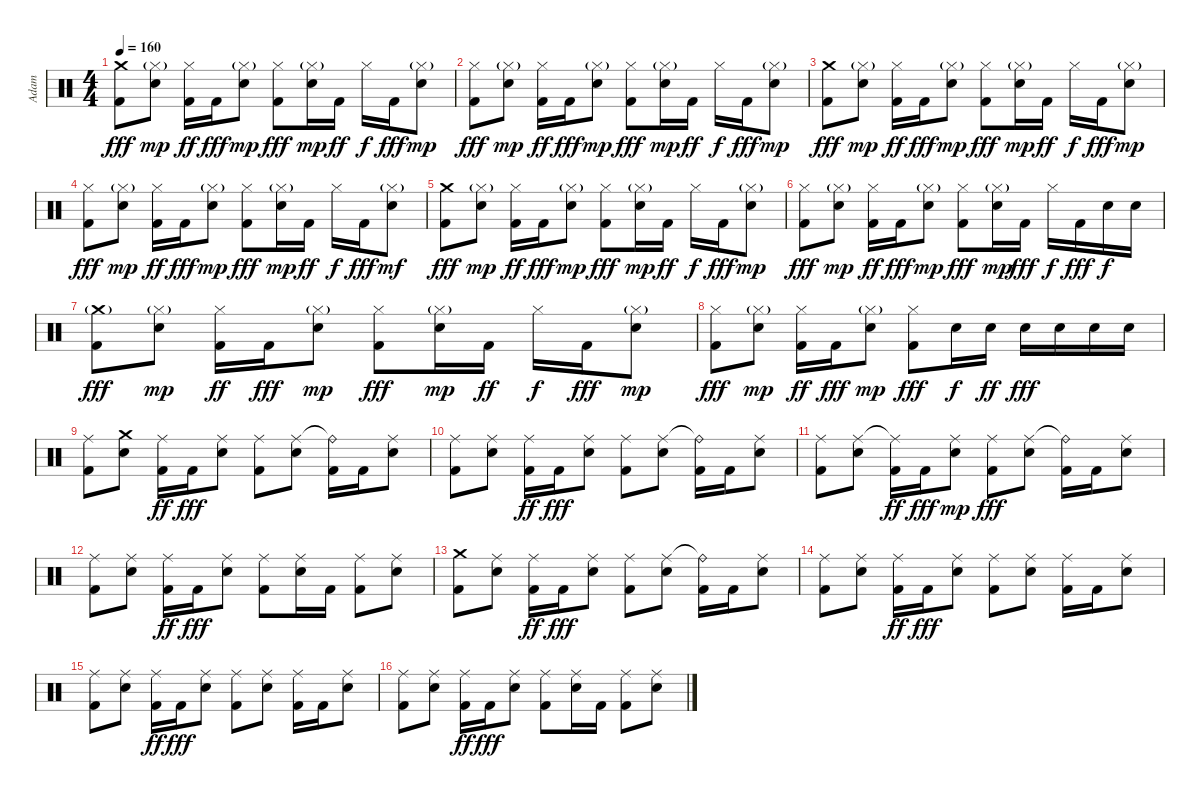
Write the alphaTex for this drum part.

\track ("Adam" "Adam") {instrument percussion}
\staff {score}
\articulation defaults
\ts (4 4)
\tempo 160
\clef neutral
\ks c
("Crash medium (hit)" "Kick (hit) 2").8{dy fff} ("Hi-Hat (closed)"{g} "Electric Snare (hit)").8{dy mp} ("Hi-Hat (closed)" "Kick (hit) 2").16{dy ff} "Kick (hit) 2".16{dy fff} ("Hi-Hat (closed)"{g} "Electric Snare (hit)").8{dy mp} ("Hi-Hat (closed)" "Kick (hit) 2").8{dy fff} ("Hi-Hat (closed)"{g} "Electric Snare (hit)").16{dy mp} "Kick (hit) 2".16{dy ff} "Hi-Hat (closed)".16{dy f} "Kick (hit) 2".16{dy fff} ("Hi-Hat (closed)"{g} "Electric Snare (hit)").8{dy mp} |
("Hi-Hat (closed)" "Kick (hit) 2").8{dy fff} ("Hi-Hat (closed)"{g} "Electric Snare (hit)").8{dy mp} ("Hi-Hat (closed)" "Kick (hit) 2").16{dy ff} "Kick (hit) 2".16{dy fff} ("Hi-Hat (closed)"{g} "Electric Snare (hit)").8{dy mp} ("Hi-Hat (closed)" "Kick (hit) 2").8{dy fff} ("Hi-Hat (closed)"{g} "Electric Snare (hit)").16{dy mp} "Kick (hit) 2".16{dy ff} "Hi-Hat (closed)".16{dy f} "Kick (hit) 2".16{dy fff} ("Hi-Hat (closed)"{g} "Electric Snare (hit)").8{dy mp} |
("Crash medium (hit)" "Kick (hit) 2").8{dy fff} ("Hi-Hat (closed)"{g} "Electric Snare (hit)").8{dy mp} ("Hi-Hat (closed)" "Kick (hit) 2").16{dy ff} "Kick (hit) 2".16{dy fff} ("Hi-Hat (closed)"{g} "Electric Snare (hit)").8{dy mp} ("Hi-Hat (closed)" "Kick (hit) 2").8{dy fff} ("Hi-Hat (closed)"{g} "Electric Snare (hit)").16{dy mp} "Kick (hit) 2".16{dy ff} "Hi-Hat (closed)".16{dy f} "Kick (hit) 2".16{dy fff} ("Hi-Hat (closed)"{g} "Electric Snare (hit)").8{dy mp} |
("Hi-Hat (closed)" "Kick (hit) 2").8{dy fff} ("Hi-Hat (closed)"{g} "Electric Snare (hit)").8{dy mp} ("Hi-Hat (closed)" "Kick (hit) 2").16{dy ff} "Kick (hit) 2".16{dy fff} ("Hi-Hat (closed)"{g} "Electric Snare (hit)").8{dy mp} ("Hi-Hat (closed)" "Kick (hit) 2").8{dy fff} ("Hi-Hat (closed)"{g} "Electric Snare (hit)").16{dy mp} "Kick (hit) 2".16{dy ff} "Hi-Hat (closed)".16{dy f} "Kick (hit) 2".16{dy fff} ("Hi-Hat (closed)"{g} "Electric Snare (hit)").8{dy mf} |
("Crash medium (hit)" "Kick (hit) 2").8{dy fff} ("Hi-Hat (closed)"{g} "Electric Snare (hit)").8{dy mp} ("Hi-Hat (closed)" "Kick (hit) 2").16{dy ff} "Kick (hit) 2".16{dy fff} ("Hi-Hat (closed)"{g} "Electric Snare (hit)").8{dy mp} ("Hi-Hat (closed)" "Kick (hit) 2").8{dy fff} ("Hi-Hat (closed)"{g} "Electric Snare (hit)").16{dy mp} "Kick (hit) 2".16{dy ff} "Hi-Hat (closed)".16{dy f} "Kick (hit) 2".16{dy fff} ("Hi-Hat (closed)"{g} "Electric Snare (hit)").8{dy mp} |
("Hi-Hat (closed)" "Kick (hit) 2").8{dy fff} ("Hi-Hat (closed)"{g} "Electric Snare (hit)").8{dy mp} ("Hi-Hat (closed)" "Kick (hit) 2").16{dy ff} "Kick (hit) 2".16{dy fff} ("Hi-Hat (closed)"{g} "Electric Snare (hit)").8{dy mp} ("Hi-Hat (closed)" "Kick (hit) 2").8{dy fff} ("Hi-Hat (closed)"{g} "Electric Snare (hit)").16{dy mp} "Kick (hit) 2".16{dy fff} "Hi-Hat (closed)".16{dy f} "Kick (hit) 2".16{dy fff} "Electric Snare (hit)".16{dy f} "Electric Snare (hit)".16 |
("Crash medium (hit)"{g} "Kick (hit) 2").8{dy fff} ("Hi-Hat (closed)"{g} "Electric Snare (hit)").8{dy mp} ("Hi-Hat (closed)" "Kick (hit) 2").16{dy ff} "Kick (hit) 2".16{dy fff} ("Hi-Hat (closed)"{g} "Electric Snare (hit)").8{dy mp} ("Hi-Hat (closed)" "Kick (hit) 2").8{dy fff} ("Hi-Hat (closed)"{g} "Electric Snare (hit)").16{dy mp} "Kick (hit) 2".16{dy ff} "Hi-Hat (closed)".16{dy f} "Kick (hit) 2".16{dy fff} ("Hi-Hat (closed)"{g} "Electric Snare (hit)").8{dy mp} |
("Hi-Hat (closed)" "Kick (hit) 2").8{dy fff} ("Hi-Hat (closed)"{g} "Electric Snare (hit)").8{dy mp} ("Hi-Hat (closed)" "Kick (hit) 2").16{dy ff} "Kick (hit) 2".16{dy fff} ("Hi-Hat (closed)"{g} "Electric Snare (hit)").8{dy mp} ("Hi-Hat (closed)" "Kick (hit) 2").8{dy fff} "Electric Snare (hit)".16{dy f} "Electric Snare (hit)".16{dy ff} "Electric Snare (hit)".16{dy fff} "Electric Snare (hit)".16 "Electric Snare (hit)".16 "Electric Snare (hit)".16 |
("Ride (middle)" "Kick (hit) 2").8 ("Crash medium (hit)" "Electric Snare (hit)").8 ("Ride (middle)" "Kick (hit) 2").16{dy ff} "Kick (hit) 2".16{dy fff} ("Ride (middle)" "Electric Snare (hit)").8 ("Ride (middle)" "Kick (hit) 2").8 ("Ride (middle)" "Electric Snare (hit)").8 ("Ride (bell)"{t} "Kick (hit) 2").16 "Kick (hit) 2".16 ("Ride (middle)" "Electric Snare (hit)").8 |
("Ride (middle)" "Kick (hit) 2").8 ("Ride (middle)" "Electric Snare (hit)").8 ("Ride (middle)" "Kick (hit) 2").16{dy ff} "Kick (hit) 2".16{dy fff} ("Ride (middle)" "Electric Snare (hit)").8 ("Ride (middle)" "Kick (hit) 2").8 ("Ride (middle)" "Electric Snare (hit)").8 ("Ride (bell)"{t} "Kick (hit) 2").16 "Kick (hit) 2".16 ("Ride (middle)" "Electric Snare (hit)").8 |
("Ride (middle)" "Kick (hit) 2").8 ("Ride (middle)" "Electric Snare (hit)").8 ("Ride (middle)"{t} "Kick (hit) 2").16{dy ff} "Kick (hit) 2".16{dy fff} ("Ride (middle)" "Electric Snare (hit)").8{dy mp} ("Ride (middle)" "Kick (hit) 2").8{dy fff} ("Ride (middle)" "Electric Snare (hit)").8 ("Ride (bell)"{t} "Kick (hit) 2").16 "Kick (hit) 2".16 ("Ride (middle)" "Electric Snare (hit)").8 |
("Ride (middle)" "Kick (hit) 2").8 ("Ride (middle)" "Electric Snare (hit)").8 ("Ride (middle)" "Kick (hit) 2").16{dy ff} "Kick (hit) 2".16{dy fff} ("Ride (middle)" "Electric Snare (hit)").8 ("Ride (middle)" "Kick (hit) 2").8 ("Ride (middle)" "Electric Snare (hit)").16 "Kick (hit) 2".16 ("Ride (middle)" "Kick (hit) 2").8 ("Ride (middle)" "Electric Snare (hit)").8 |
("Crash medium (hit)" "Kick (hit) 2").8 ("Ride (middle)" "Electric Snare (hit)").8 ("Ride (middle)" "Kick (hit) 2").16{dy ff} "Kick (hit) 2".16{dy fff} ("Ride (middle)" "Electric Snare (hit)").8 ("Ride (middle)" "Kick (hit) 2").8 ("Ride (middle)" "Electric Snare (hit)").8 ("Ride (bell)"{t} "Kick (hit) 2").16 "Kick (hit) 2".16 ("Ride (middle)" "Electric Snare (hit)").8 |
("Ride (middle)" "Kick (hit) 2").8 ("Ride (middle)" "Electric Snare (hit)").8 ("Ride (middle)" "Kick (hit) 2").16{dy ff} "Kick (hit) 2".16{dy fff} ("Ride (middle)" "Electric Snare (hit)").8 ("Ride (middle)" "Kick (hit) 2").8 ("Ride (middle)" "Electric Snare (hit)").8 ("Ride (middle)" "Kick (hit) 2").16 "Kick (hit) 2".16 ("Ride (middle)" "Electric Snare (hit)").8 |
("Ride (middle)" "Kick (hit) 2").8 ("Ride (middle)" "Electric Snare (hit)").8 ("Ride (middle)" "Kick (hit) 2").16{dy ff} "Kick (hit) 2".16{dy fff} ("Ride (middle)" "Electric Snare (hit)").8 ("Ride (middle)" "Kick (hit) 2").8 ("Ride (middle)" "Electric Snare (hit)").8 ("Ride (middle)" "Kick (hit) 2").16 "Kick (hit) 2".16 ("Ride (middle)" "Electric Snare (hit)").8 |
("Ride (middle)" "Kick (hit) 2").8 ("Ride (middle)" "Electric Snare (hit)").8 ("Ride (middle)" "Kick (hit) 2").16{dy ff} "Kick (hit) 2".16{dy fff} ("Ride (middle)" "Electric Snare (hit)").8 ("Ride (middle)" "Kick (hit) 2").8 ("Ride (middle)" "Electric Snare (hit)").16 "Kick (hit) 2".16 ("Ride (middle)" "Kick (hit) 2").8 ("Ride (middle)" "Electric Snare (hit)").8
